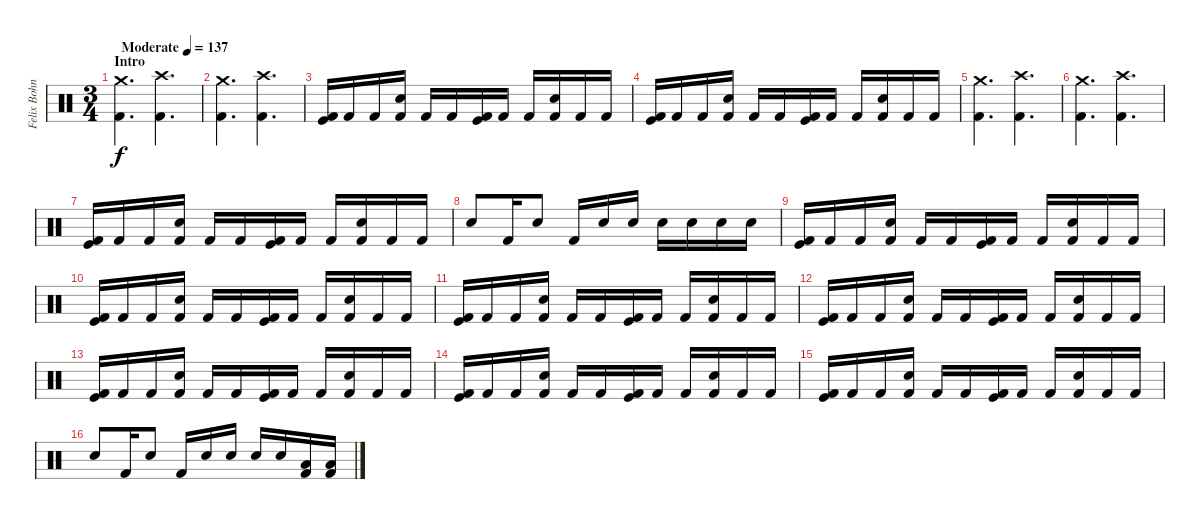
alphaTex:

\track ("Felix Bohnke - Drums" "Felix Bohn") {instrument percussion}
\staff {score}
\articulation defaults
\ts (3 4)
\section ("" "Intro")
\tempo (137 "Moderate")
\clef neutral
\ks c
("Crash medium (hit)" "Kick (hit) 2").4{d dy f} ("Crash high (hit)" "Kick (hit) 2").4{d} |
("Crash medium (hit)" "Kick (hit) 2").4{d} ("Crash high (hit)" "Kick (hit) 2").4{d} |
("Kick (hit)" "Kick (hit) 2").16 "Kick (hit) 2".16 "Kick (hit) 2".16 ("Snare (hit) 2" "Kick (hit) 2").16 "Kick (hit) 2".16 "Kick (hit) 2".16 ("Kick (hit)" "Kick (hit) 2").16 "Kick (hit) 2".16 "Kick (hit) 2".16 ("Snare (hit) 2" "Kick (hit) 2").16 "Kick (hit) 2".16 "Kick (hit) 2".16 |
("Kick (hit)" "Kick (hit) 2").16 "Kick (hit) 2".16 "Kick (hit) 2".16 ("Snare (hit) 2" "Kick (hit) 2").16 "Kick (hit) 2".16 "Kick (hit) 2".16 ("Kick (hit)" "Kick (hit) 2").16 "Kick (hit) 2".16 "Kick (hit) 2".16 ("Snare (hit) 2" "Kick (hit) 2").16 "Kick (hit) 2".16 "Kick (hit) 2".16 |
("Crash medium (hit)" "Kick (hit) 2").4{d} ("Crash high (hit)" "Kick (hit) 2").4{d} |
("Crash medium (hit)" "Kick (hit) 2").4{d} ("Crash high (hit)" "Kick (hit) 2").4{d} |
("Kick (hit)" "Kick (hit) 2").16 "Kick (hit) 2".16 "Kick (hit) 2".16 ("Snare (hit) 2" "Kick (hit) 2").16 "Kick (hit) 2".16 "Kick (hit) 2".16 ("Kick (hit)" "Kick (hit) 2").16 "Kick (hit) 2".16 "Kick (hit) 2".16 ("Snare (hit) 2" "Kick (hit) 2").16 "Kick (hit) 2".16 "Kick (hit) 2".16 |
"Snare (hit) 2".8 "Kick (hit) 2".16 "Snare (hit) 2".8 "Kick (hit) 2".16 "Snare (hit) 2".16 "Snare (hit) 2".16 "Snare (hit) 2".16 "Snare (hit) 2".16 "Snare (hit) 2".16 "Snare (hit) 2".16 |
("Kick (hit)" "Kick (hit) 2").16 "Kick (hit) 2".16 "Kick (hit) 2".16 ("Snare (hit) 2" "Kick (hit) 2").16 "Kick (hit) 2".16 "Kick (hit) 2".16 ("Kick (hit)" "Kick (hit) 2").16 "Kick (hit) 2".16 "Kick (hit) 2".16 ("Snare (hit) 2" "Kick (hit) 2").16 "Kick (hit) 2".16 "Kick (hit) 2".16 |
("Kick (hit)" "Kick (hit) 2").16 "Kick (hit) 2".16 "Kick (hit) 2".16 ("Snare (hit) 2" "Kick (hit) 2").16 "Kick (hit) 2".16 "Kick (hit) 2".16 ("Kick (hit)" "Kick (hit) 2").16 "Kick (hit) 2".16 "Kick (hit) 2".16 ("Snare (hit) 2" "Kick (hit) 2").16 "Kick (hit) 2".16 "Kick (hit) 2".16 |
("Kick (hit)" "Kick (hit) 2").16 "Kick (hit) 2".16 "Kick (hit) 2".16 ("Snare (hit) 2" "Kick (hit) 2").16 "Kick (hit) 2".16 "Kick (hit) 2".16 ("Kick (hit)" "Kick (hit) 2").16 "Kick (hit) 2".16 "Kick (hit) 2".16 ("Snare (hit) 2" "Kick (hit) 2").16 "Kick (hit) 2".16 "Kick (hit) 2".16 |
("Kick (hit)" "Kick (hit) 2").16 "Kick (hit) 2".16 "Kick (hit) 2".16 ("Snare (hit) 2" "Kick (hit) 2").16 "Kick (hit) 2".16 "Kick (hit) 2".16 ("Kick (hit)" "Kick (hit) 2").16 "Kick (hit) 2".16 "Kick (hit) 2".16 ("Snare (hit) 2" "Kick (hit) 2").16 "Kick (hit) 2".16 "Kick (hit) 2".16 |
("Kick (hit)" "Kick (hit) 2").16 "Kick (hit) 2".16 "Kick (hit) 2".16 ("Snare (hit) 2" "Kick (hit) 2").16 "Kick (hit) 2".16 "Kick (hit) 2".16 ("Kick (hit)" "Kick (hit) 2").16 "Kick (hit) 2".16 "Kick (hit) 2".16 ("Snare (hit) 2" "Kick (hit) 2").16 "Kick (hit) 2".16 "Kick (hit) 2".16 |
("Kick (hit)" "Kick (hit) 2").16 "Kick (hit) 2".16 "Kick (hit) 2".16 ("Snare (hit) 2" "Kick (hit) 2").16 "Kick (hit) 2".16 "Kick (hit) 2".16 ("Kick (hit)" "Kick (hit) 2").16 "Kick (hit) 2".16 "Kick (hit) 2".16 ("Snare (hit) 2" "Kick (hit) 2").16 "Kick (hit) 2".16 "Kick (hit) 2".16 |
("Kick (hit)" "Kick (hit) 2").16 "Kick (hit) 2".16 "Kick (hit) 2".16 ("Snare (hit) 2" "Kick (hit) 2").16 "Kick (hit) 2".16 "Kick (hit) 2".16 ("Kick (hit)" "Kick (hit) 2").16 "Kick (hit) 2".16 "Kick (hit) 2".16 ("Snare (hit) 2" "Kick (hit) 2").16 "Kick (hit) 2".16 "Kick (hit) 2".16 |
"Snare (hit) 2".8 "Kick (hit) 2".16 "Snare (hit) 2".8 "Kick (hit) 2".16 "Snare (hit) 2".16 "Snare (hit) 2".16 "Snare (hit) 2".16 "Snare (hit) 2".16 ("Low Tom (hit)" "Kick (hit) 2").16 ("Low Tom (hit)" "Kick (hit) 2").16
